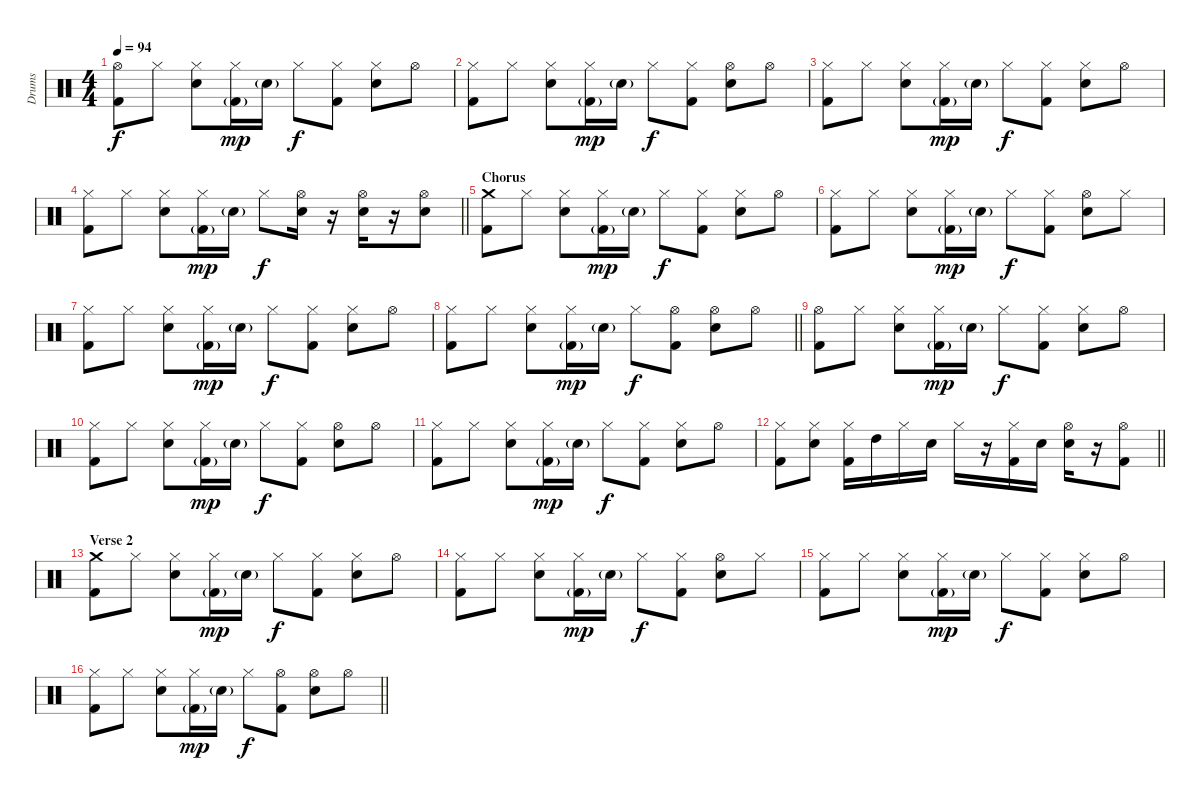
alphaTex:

\track ("Drums" "Drums") {instrument percussion}
\staff {score}
\articulation defaults
\ts (4 4)
\tempo 94
\clef neutral
\ks c
("Hi-Hat (open)" "Kick (hit) 2").8{dy f} "Hi-Hat (closed)".8 ("Hi-Hat (closed)" "Electric Snare (hit)").8 ("Hi-Hat (closed)" "Kick (hit) 2"{g}).16{dy mp} "Electric Snare (hit)"{g}.16 "Hi-Hat (closed)".8{dy f} ("Hi-Hat (closed)" "Kick (hit) 2").8 ("Hi-Hat (closed)" "Electric Snare (hit)").8 "Hi-Hat (open)".8 |
("Hi-Hat (closed)" "Kick (hit) 2").8 "Hi-Hat (closed)".8 ("Hi-Hat (closed)" "Electric Snare (hit)").8 ("Hi-Hat (closed)" "Kick (hit) 2"{g}).16{dy mp} "Electric Snare (hit)"{g}.16 "Hi-Hat (closed)".8{dy f} ("Hi-Hat (closed)" "Kick (hit) 2").8 ("Hi-Hat (open)" "Electric Snare (hit)").8 "Hi-Hat (open)".8 |
("Hi-Hat (closed)" "Kick (hit) 2").8 "Hi-Hat (closed)".8 ("Hi-Hat (closed)" "Electric Snare (hit)").8 ("Hi-Hat (closed)" "Kick (hit) 2"{g}).16{dy mp} "Electric Snare (hit)"{g}.16 "Hi-Hat (closed)".8{dy f} ("Hi-Hat (closed)" "Kick (hit) 2").8 ("Hi-Hat (closed)" "Electric Snare (hit)").8 "Hi-Hat (open)".8 |
\barLineRight lightlight
("Hi-Hat (closed)" "Kick (hit) 2").8 "Hi-Hat (closed)".8 ("Hi-Hat (closed)" "Electric Snare (hit)").8 ("Hi-Hat (closed)" "Kick (hit) 2"{g}).16{dy mp} "Electric Snare (hit)"{g}.16 "Hi-Hat (closed)".8{dy f} ("Hi-Hat (open)" "Electric Snare (hit)").16 r.16 ("Hi-Hat (open)" "Electric Snare (hit)").16 r.16 ("Hi-Hat (open)" "Electric Snare (hit)").8 |
\section ("" "Chorus")
("Crash medium (hit)" "Kick (hit) 2").8 "Hi-Hat (closed)".8 ("Hi-Hat (closed)" "Electric Snare (hit)").8 ("Hi-Hat (closed)" "Kick (hit) 2"{g}).16{dy mp} "Electric Snare (hit)"{g}.16 "Hi-Hat (closed)".8{dy f} ("Hi-Hat (closed)" "Kick (hit) 2").8 ("Hi-Hat (closed)" "Electric Snare (hit)").8 "Hi-Hat (open)".8 |
("Hi-Hat (closed)" "Kick (hit) 2").8 "Hi-Hat (closed)".8 ("Hi-Hat (closed)" "Electric Snare (hit)").8 ("Hi-Hat (closed)" "Kick (hit) 2"{g}).16{dy mp} "Electric Snare (hit)"{g}.16 "Hi-Hat (closed)".8{dy f} ("Hi-Hat (closed)" "Kick (hit) 2").8 ("Hi-Hat (open)" "Electric Snare (hit)").8 "Hi-Hat (closed)".8 |
("Hi-Hat (closed)" "Kick (hit) 2").8 "Hi-Hat (closed)".8 ("Hi-Hat (closed)" "Electric Snare (hit)").8 ("Hi-Hat (closed)" "Kick (hit) 2"{g}).16{dy mp} "Electric Snare (hit)"{g}.16 "Hi-Hat (closed)".8{dy f} ("Hi-Hat (closed)" "Kick (hit) 2").8 ("Hi-Hat (closed)" "Electric Snare (hit)").8 "Hi-Hat (open)".8 |
\barLineRight lightlight
("Hi-Hat (closed)" "Kick (hit) 2").8 "Hi-Hat (closed)".8 ("Hi-Hat (closed)" "Electric Snare (hit)").8 ("Hi-Hat (closed)" "Kick (hit) 2"{g}).16{dy mp} "Electric Snare (hit)"{g}.16 "Hi-Hat (closed)".8{dy f} ("Hi-Hat (open)" "Kick (hit) 2").8 ("Hi-Hat (open)" "Electric Snare (hit)").8 "Hi-Hat (open)".8 |
("Hi-Hat (open)" "Kick (hit) 2").8 "Hi-Hat (closed)".8 ("Hi-Hat (closed)" "Electric Snare (hit)").8 ("Hi-Hat (closed)" "Kick (hit) 2"{g}).16{dy mp} "Electric Snare (hit)"{g}.16 "Hi-Hat (closed)".8{dy f} ("Hi-Hat (closed)" "Kick (hit) 2").8 ("Hi-Hat (closed)" "Electric Snare (hit)").8 "Hi-Hat (open)".8 |
("Hi-Hat (closed)" "Kick (hit) 2").8 "Hi-Hat (closed)".8 ("Hi-Hat (closed)" "Electric Snare (hit)").8 ("Hi-Hat (closed)" "Kick (hit) 2"{g}).16{dy mp} "Electric Snare (hit)"{g}.16 "Hi-Hat (closed)".8{dy f} ("Hi-Hat (closed)" "Kick (hit) 2").8 ("Hi-Hat (open)" "Electric Snare (hit)").8 "Hi-Hat (open)".8 |
("Hi-Hat (closed)" "Kick (hit) 2").8 "Hi-Hat (closed)".8 ("Hi-Hat (closed)" "Electric Snare (hit)").8 ("Hi-Hat (closed)" "Kick (hit) 2"{g}).16{dy mp} "Electric Snare (hit)"{g}.16 "Hi-Hat (closed)".8{dy f} ("Hi-Hat (closed)" "Kick (hit) 2").8 ("Hi-Hat (closed)" "Electric Snare (hit)").8 "Hi-Hat (open)".8 |
\barLineRight lightlight
("Hi-Hat (closed)" "Kick (hit) 2").8 ("Hi-Hat (closed)" "Electric Snare (hit)").8 ("Hi-Hat (closed)" "Kick (hit) 2").16 "High Tom (hit)".16 "Hi-Hat (closed)".16 "Electric Snare (hit)".16 "Hi-Hat (closed)".16 r.16 ("Hi-Hat (closed)" "Kick (hit) 2").16 "Electric Snare (hit)".16 ("Hi-Hat (open)" "Electric Snare (hit)").16 r.16 ("Hi-Hat (open)" "Kick (hit) 2").8 |
\section ("" "Verse 2")
("Crash medium (hit)" "Kick (hit) 2").8 "Hi-Hat (closed)".8 ("Hi-Hat (closed)" "Electric Snare (hit)").8 ("Hi-Hat (closed)" "Kick (hit) 2"{g}).16{dy mp} "Electric Snare (hit)"{g}.16 "Hi-Hat (closed)".8{dy f} ("Hi-Hat (closed)" "Kick (hit) 2").8 ("Hi-Hat (closed)" "Electric Snare (hit)").8 "Hi-Hat (open)".8 |
("Hi-Hat (closed)" "Kick (hit) 2").8 "Hi-Hat (closed)".8 ("Hi-Hat (closed)" "Electric Snare (hit)").8 ("Hi-Hat (closed)" "Kick (hit) 2"{g}).16{dy mp} "Electric Snare (hit)"{g}.16 "Hi-Hat (closed)".8{dy f} ("Hi-Hat (closed)" "Kick (hit) 2").8 ("Hi-Hat (open)" "Electric Snare (hit)").8 "Hi-Hat (closed)".8 |
("Hi-Hat (closed)" "Kick (hit) 2").8 "Hi-Hat (closed)".8 ("Hi-Hat (closed)" "Electric Snare (hit)").8 ("Hi-Hat (closed)" "Kick (hit) 2"{g}).16{dy mp} "Electric Snare (hit)"{g}.16 "Hi-Hat (closed)".8{dy f} ("Hi-Hat (closed)" "Kick (hit) 2").8 ("Hi-Hat (closed)" "Electric Snare (hit)").8 "Hi-Hat (open)".8 |
\barLineRight lightlight
("Hi-Hat (closed)" "Kick (hit) 2").8 "Hi-Hat (closed)".8 ("Hi-Hat (closed)" "Electric Snare (hit)").8 ("Hi-Hat (closed)" "Kick (hit) 2"{g}).16{dy mp} "Electric Snare (hit)"{g}.16 "Hi-Hat (closed)".8{dy f} ("Hi-Hat (open)" "Kick (hit) 2").8 ("Hi-Hat (open)" "Electric Snare (hit)").8 "Hi-Hat (open)".8
